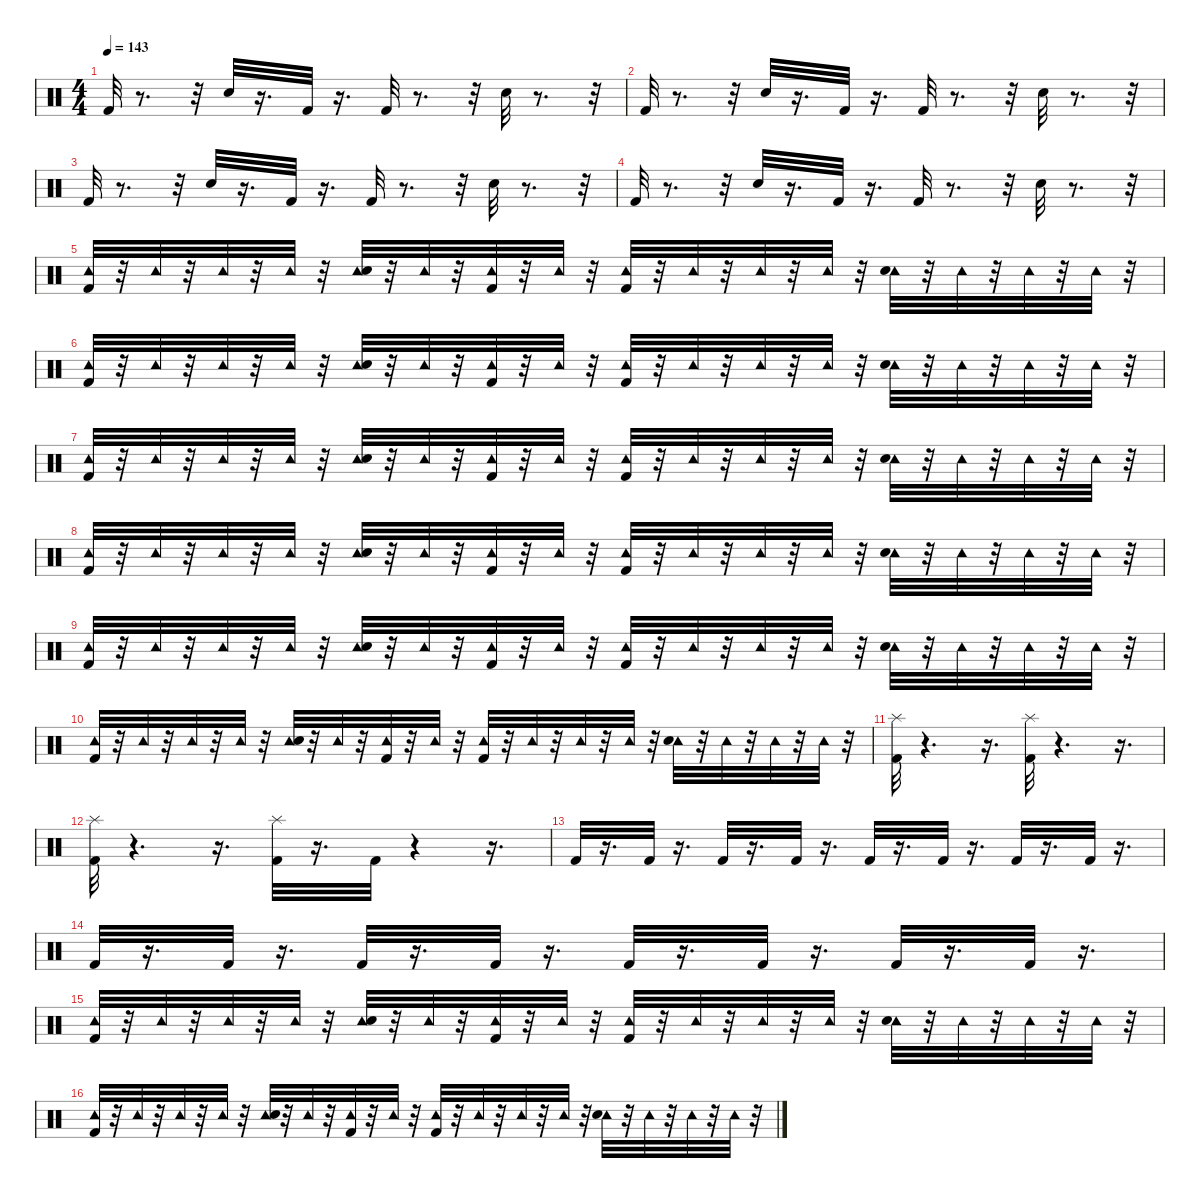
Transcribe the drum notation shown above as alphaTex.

\defaultSystemsLayout 4
\hideDynamics
\bracketExtendMode nobrackets
\singleTrackTrackNamePolicy hidden
\multiTrackTrackNamePolicy hidden
\firstSystemTrackNameMode fullname
\firstSystemTrackNameOrientation horizontal
\otherSystemsTrackNameOrientation horizontal
\track ("Drums" "drm.") {instrument percussion}
\staff {score}
\articulation defaults
\ts (4 4)
\tempo 143
\clef neutral
\ks c "Kick (hit) 2".32{dy ff beam Up}
r.8{d beam Up} r.32{beam Up} "Snare (hit) 2".32{beam Up} r.16{d beam Up} "Kick (hit) 2".32{dy fff beam Up} r.16{d beam Up} "Kick (hit) 2".32{dy ff beam Up} r.8{d beam Up} r.32{beam Up} "Snare (hit) 2".32{beam Down} r.8{d beam Down} r.32{beam Down} |
"Kick (hit) 2".32{beam Up} r.8{d beam Up} r.32{beam Up} "Snare (hit) 2".32{beam Up} r.16{d beam Up} "Kick (hit) 2".32{dy fff beam Up} r.16{d beam Up} "Kick (hit) 2".32{dy ff beam Up} r.8{d beam Up} r.32{beam Up} "Snare (hit) 2".32{beam Down} r.8{d beam Down} r.32{beam Down} |
"Kick (hit) 2".32{beam Up} r.8{d beam Up} r.32{beam Up} "Snare (hit) 2".32{beam Up} r.16{d beam Up} "Kick (hit) 2".32{dy fff beam Up} r.16{d beam Up} "Kick (hit) 2".32{dy ff beam Up} r.8{d beam Up} r.32{beam Up} "Snare (hit) 2".32{beam Down} r.8{d beam Down} r.32{beam Down} |
"Kick (hit) 2".32{beam Up} r.8{d beam Up} r.32{beam Up} "Snare (hit) 2".32{beam Up} r.16{d beam Up} "Kick (hit) 2".32{dy fff beam Up} r.16{d beam Up} "Kick (hit) 2".32{dy ff beam Up} r.8{d beam Up} r.32{beam Up} "Snare (hit) 2".32{beam Down} r.8{d beam Down} r.32{beam Down} |
("Kick (hit) 2" "Tambourine (hit)").32{beam Up} r.32{beam Up} "Tambourine (hit)".32{dy mf beam Up} r.32{beam Up} "Tambourine (hit)".32{beam Up} r.32{beam Up} "Tambourine (hit)".32{beam Up} r.32{beam Up} ("Tambourine (hit)" "Snare (hit) 2").32{dy fff beam Up} r.32{beam Up} "Tambourine (hit)".32{dy mf beam Up} r.32{beam Up} ("Kick (hit) 2" "Tambourine (hit)").32{dy fff beam Up} r.32{beam Up} "Tambourine (hit)".32{dy mf beam Up} r.32{beam Up} ("Kick (hit) 2" "Tambourine (hit)").32{dy ff beam Up} r.32{beam Up} "Tambourine (hit)".32{dy mf beam Up} r.32{beam Up} "Tambourine (hit)".32{dy mp beam Up} r.32{beam Up} "Tambourine (hit)".32{dy mf beam Up} r.32{beam Up} ("Tambourine (hit)" "Snare (hit) 2").32{dy fff beam Down} r.32{beam Down} "Tambourine (hit)".32{dy mf beam Down} r.32{beam Down} "Tambourine (hit)".32{beam Down} r.32{beam Down} "Tambourine (hit)".32{beam Down} r.32{beam Down} |
("Kick (hit) 2" "Tambourine (hit)").32{dy ff beam Up} r.32{beam Up} "Tambourine (hit)".32{dy mf beam Up} r.32{beam Up} "Tambourine (hit)".32{beam Up} r.32{beam Up} "Tambourine (hit)".32{beam Up} r.32{beam Up} ("Tambourine (hit)" "Snare (hit) 2").32{dy fff beam Up} r.32{beam Up} "Tambourine (hit)".32{dy mf beam Up} r.32{beam Up} ("Kick (hit) 2" "Tambourine (hit)").32{dy fff beam Up} r.32{beam Up} "Tambourine (hit)".32{dy mf beam Up} r.32{beam Up} ("Kick (hit) 2" "Tambourine (hit)").32{dy ff beam Up} r.32{beam Up} "Tambourine (hit)".32{dy mf beam Up} r.32{beam Up} "Tambourine (hit)".32{dy mp beam Up} r.32{beam Up} "Tambourine (hit)".32{dy mf beam Up} r.32{beam Up} ("Tambourine (hit)" "Snare (hit) 2").32{dy fff beam Down} r.32{beam Down} "Tambourine (hit)".32{dy mf beam Down} r.32{beam Down} "Tambourine (hit)".32{beam Down} r.32{beam Down} "Tambourine (hit)".32{beam Down} r.32{beam Down} |
("Kick (hit) 2" "Tambourine (hit)").32{dy ff beam Up} r.32{beam Up} "Tambourine (hit)".32{dy mf beam Up} r.32{beam Up} "Tambourine (hit)".32{beam Up} r.32{beam Up} "Tambourine (hit)".32{beam Up} r.32{beam Up} ("Tambourine (hit)" "Snare (hit) 2").32{dy fff beam Up} r.32{beam Up} "Tambourine (hit)".32{dy mf beam Up} r.32{beam Up} ("Kick (hit) 2" "Tambourine (hit)").32{dy fff beam Up} r.32{beam Up} "Tambourine (hit)".32{dy mf beam Up} r.32{beam Up} ("Kick (hit) 2" "Tambourine (hit)").32{dy ff beam Up} r.32{beam Up} "Tambourine (hit)".32{dy mf beam Up} r.32{beam Up} "Tambourine (hit)".32{dy mp beam Up} r.32{beam Up} "Tambourine (hit)".32{dy mf beam Up} r.32{beam Up} ("Tambourine (hit)" "Snare (hit) 2").32{dy fff beam Down} r.32{beam Down} "Tambourine (hit)".32{dy mf beam Down} r.32{beam Down} "Tambourine (hit)".32{beam Down} r.32{beam Down} "Tambourine (hit)".32{beam Down} r.32{beam Down} |
("Kick (hit) 2" "Tambourine (hit)").32{dy ff beam Up} r.32{beam Up} "Tambourine (hit)".32{dy mf beam Up} r.32{beam Up} "Tambourine (hit)".32{beam Up} r.32{beam Up} "Tambourine (hit)".32{beam Up} r.32{beam Up} ("Tambourine (hit)" "Snare (hit) 2").32{dy fff beam Up} r.32{beam Up} "Tambourine (hit)".32{dy mf beam Up} r.32{beam Up} ("Kick (hit) 2" "Tambourine (hit)").32{dy fff beam Up} r.32{beam Up} "Tambourine (hit)".32{dy mf beam Up} r.32{beam Up} ("Kick (hit) 2" "Tambourine (hit)").32{dy ff beam Up} r.32{beam Up} "Tambourine (hit)".32{dy mf beam Up} r.32{beam Up} "Tambourine (hit)".32{dy mp beam Up} r.32{beam Up} "Tambourine (hit)".32{dy mf beam Up} r.32{beam Up} ("Tambourine (hit)" "Snare (hit) 2").32{dy fff beam Down} r.32{beam Down} "Tambourine (hit)".32{dy mf beam Down} r.32{beam Down} "Tambourine (hit)".32{beam Down} r.32{beam Down} "Tambourine (hit)".32{beam Down} r.32{beam Down} |
("Kick (hit) 2" "Tambourine (hit)").32{dy ff beam Up} r.32{beam Up} "Tambourine (hit)".32{dy mf beam Up} r.32{beam Up} "Tambourine (hit)".32{beam Up} r.32{beam Up} "Tambourine (hit)".32{beam Up} r.32{beam Up} ("Tambourine (hit)" "Snare (hit) 2").32{dy fff beam Up} r.32{beam Up} "Tambourine (hit)".32{dy mf beam Up} r.32{beam Up} ("Kick (hit) 2" "Tambourine (hit)").32{dy fff beam Up} r.32{beam Up} "Tambourine (hit)".32{dy mf beam Up} r.32{beam Up} ("Kick (hit) 2" "Tambourine (hit)").32{dy ff beam Up} r.32{beam Up} "Tambourine (hit)".32{dy mf beam Up} r.32{beam Up} "Tambourine (hit)".32{dy mp beam Up} r.32{beam Up} "Tambourine (hit)".32{dy mf beam Up} r.32{beam Up} ("Tambourine (hit)" "Snare (hit) 2").32{dy fff beam Down} r.32{beam Down} "Tambourine (hit)".32{dy mf beam Down} r.32{beam Down} "Tambourine (hit)".32{beam Down} r.32{beam Down} "Tambourine (hit)".32{beam Down} r.32{beam Down} |
("Kick (hit) 2" "Tambourine (hit)").32{dy ff beam Up} r.32{beam Up} "Tambourine (hit)".32{dy mf beam Up} r.32{beam Up} "Tambourine (hit)".32{beam Up} r.32{beam Up} "Tambourine (hit)".32{beam Up} r.32{beam Up} ("Tambourine (hit)" "Snare (hit) 2").32{dy fff beam Up} r.32{beam Up} "Tambourine (hit)".32{dy mf beam Up} r.32{beam Up} ("Kick (hit) 2" "Tambourine (hit)").32{dy fff beam Up} r.32{beam Up} "Tambourine (hit)".32{dy mf beam Up} r.32{beam Up} ("Kick (hit) 2" "Tambourine (hit)").32{dy ff beam Up} r.32{beam Up} "Tambourine (hit)".32{dy mf beam Up} r.32{beam Up} "Tambourine (hit)".32{dy mp beam Up} r.32{beam Up} "Tambourine (hit)".32{dy mf beam Up} r.32{beam Up} ("Tambourine (hit)" "Snare (hit) 2").32{dy fff beam Down} r.32{beam Down} "Tambourine (hit)".32{dy mf beam Down} r.32{beam Down} "Tambourine (hit)".32{beam Down} r.32{beam Down} "Tambourine (hit)".32{beam Down} r.32{beam Down} |
("Splash (hit)" "Kick (hit) 2").32{dy fff beam Down} r.4{d beam Down} r.16{d beam Down} ("Splash (hit)" "Kick (hit) 2").32{beam Down} r.4{d beam Down} r.16{d beam Down} |
("Splash (hit)" "Kick (hit) 2").32{beam Down} r.4{d beam Down} r.16{d beam Down} ("Splash (hit)" "Kick (hit) 2").32{beam Down} r.16{d beam Down} "Kick (hit) 2".32{dy ff beam Down} r.4{beam Down} r.16{d beam Down} |
"Kick (hit) 2".32{dy f beam Up} r.16{d beam Up} "Kick (hit) 2".32{beam Up} r.16{d beam Up} "Kick (hit) 2".32{beam Up} r.16{d beam Up} "Kick (hit) 2".32{dy ff beam Up} r.16{d beam Up} "Kick (hit) 2".32{dy fff beam Up} r.16{d beam Up} "Kick (hit) 2".32{dy ff beam Up} r.16{d beam Up} "Kick (hit) 2".32{beam Up} r.16{d beam Up} "Kick (hit) 2".32{beam Up} r.16{d beam Up} |
"Kick (hit) 2".32{beam Up} r.16{d beam Up} "Kick (hit) 2".32{beam Up} r.16{d beam Up} "Kick (hit) 2".32{beam Up} r.16{d beam Up} "Kick (hit) 2".32{beam Up} r.16{d beam Up} "Kick (hit) 2".32{dy fff beam Up} r.16{d beam Up} "Kick (hit) 2".32{dy ff beam Up} r.16{d beam Up} "Kick (hit) 2".32{beam Up} r.16{d beam Up} "Kick (hit) 2".32{dy fff beam Up} r.16{d beam Up} |
("Kick (hit) 2" "Tambourine (hit)").32{dy ff beam Up} r.32{beam Up} "Tambourine (hit)".32{dy mf beam Up} r.32{beam Up} "Tambourine (hit)".32{beam Up} r.32{beam Up} "Tambourine (hit)".32{beam Up} r.32{beam Up} ("Tambourine (hit)" "Snare (hit) 2").32{dy fff beam Up} r.32{beam Up} "Tambourine (hit)".32{dy mf beam Up} r.32{beam Up} ("Kick (hit) 2" "Tambourine (hit)").32{dy fff beam Up} r.32{beam Up} "Tambourine (hit)".32{dy mf beam Up} r.32{beam Up} ("Kick (hit) 2" "Tambourine (hit)").32{dy ff beam Up} r.32{beam Up} "Tambourine (hit)".32{dy mf beam Up} r.32{beam Up} "Tambourine (hit)".32{dy mp beam Up} r.32{beam Up} "Tambourine (hit)".32{dy mf beam Up} r.32{beam Up} ("Tambourine (hit)" "Snare (hit) 2").32{dy fff beam Down} r.32{beam Down} "Tambourine (hit)".32{dy mf beam Down} r.32{beam Down} "Tambourine (hit)".32{beam Down} r.32{beam Down} "Tambourine (hit)".32{beam Down} r.32{beam Down} |
("Kick (hit) 2" "Tambourine (hit)").32{dy ff beam Up} r.32{beam Up} "Tambourine (hit)".32{dy mf beam Up} r.32{beam Up} "Tambourine (hit)".32{beam Up} r.32{beam Up} "Tambourine (hit)".32{beam Up} r.32{beam Up} ("Tambourine (hit)" "Snare (hit) 2").32{dy fff beam Up} r.32{beam Up} "Tambourine (hit)".32{dy mf beam Up} r.32{beam Up} ("Kick (hit) 2" "Tambourine (hit)").32{dy fff beam Up} r.32{beam Up} "Tambourine (hit)".32{dy mf beam Up} r.32{beam Up} ("Kick (hit) 2" "Tambourine (hit)").32{dy ff beam Up} r.32{beam Up} "Tambourine (hit)".32{dy mf beam Up} r.32{beam Up} "Tambourine (hit)".32{dy mp beam Up} r.32{beam Up} "Tambourine (hit)".32{dy mf beam Up} r.32{beam Up} ("Tambourine (hit)" "Snare (hit) 2").32{dy fff beam Down} r.32{beam Down} "Tambourine (hit)".32{dy mf beam Down} r.32{beam Down} "Tambourine (hit)".32{beam Down} r.32{beam Down} "Tambourine (hit)".32{beam Down} r.32{beam Down}
